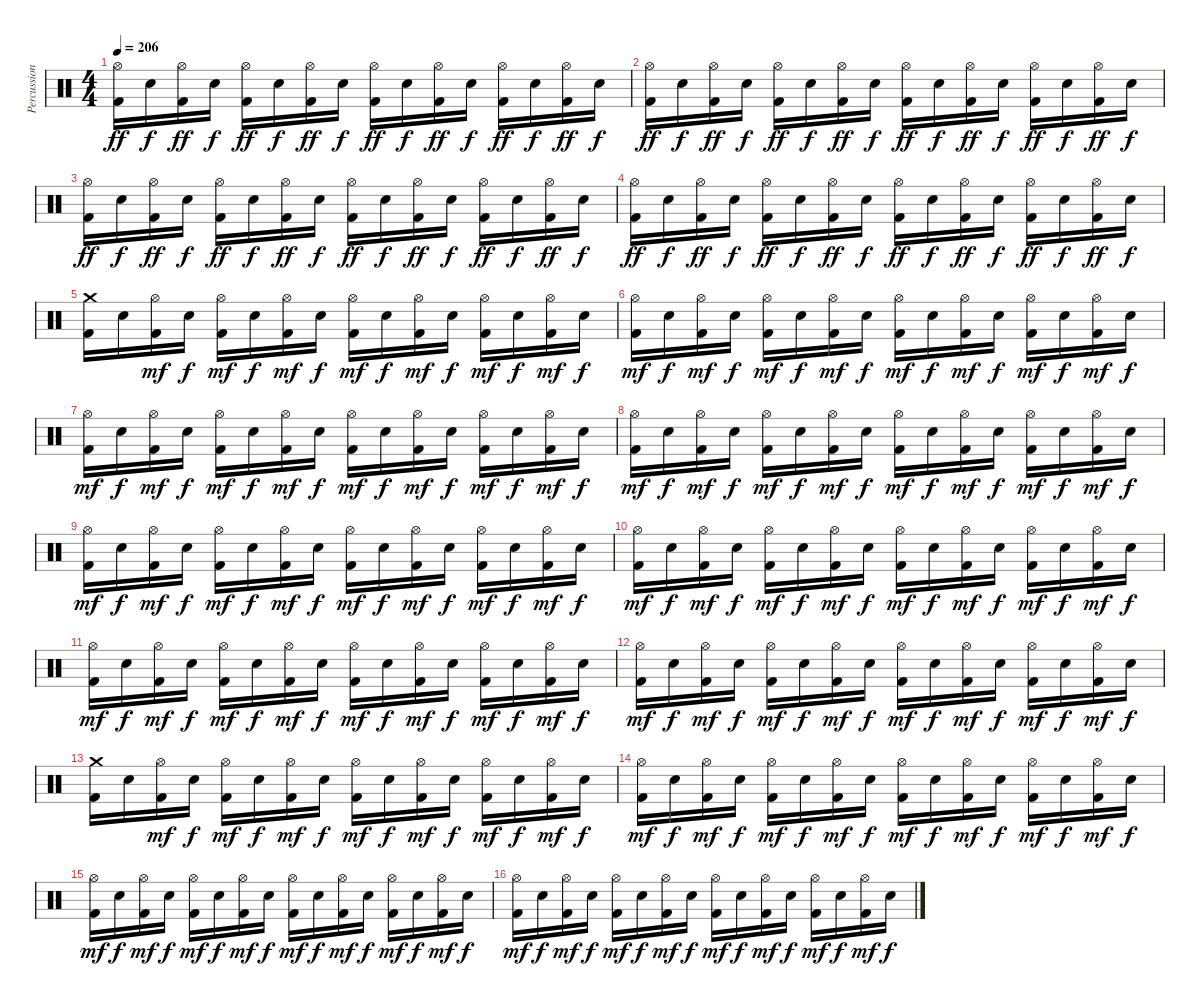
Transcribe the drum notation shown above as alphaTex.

\track ("Percussion" "Percussion") {instrument percussion}
\staff {score}
\articulation defaults
\ts (4 4)
\tempo 206
\clef neutral
\ks c
("Hi-Hat (open)" "Kick (hit) 2").16{dy ff} "Electric Snare (hit)".16{dy f} ("Hi-Hat (open)" "Kick (hit) 2").16{dy ff} "Electric Snare (hit)".16{dy f} ("Hi-Hat (open)" "Kick (hit) 2").16{dy ff} "Electric Snare (hit)".16{dy f} ("Hi-Hat (open)" "Kick (hit) 2").16{dy ff} "Electric Snare (hit)".16{dy f} ("Hi-Hat (open)" "Kick (hit) 2").16{dy ff} "Electric Snare (hit)".16{dy f} ("Hi-Hat (open)" "Kick (hit) 2").16{dy ff} "Electric Snare (hit)".16{dy f} ("Hi-Hat (open)" "Kick (hit) 2").16{dy ff} "Electric Snare (hit)".16{dy f} ("Hi-Hat (open)" "Kick (hit) 2").16{dy ff} "Electric Snare (hit)".16{dy f} |
("Hi-Hat (open)" "Kick (hit) 2").16{dy ff} "Electric Snare (hit)".16{dy f} ("Hi-Hat (open)" "Kick (hit) 2").16{dy ff} "Electric Snare (hit)".16{dy f} ("Hi-Hat (open)" "Kick (hit) 2").16{dy ff} "Electric Snare (hit)".16{dy f} ("Hi-Hat (open)" "Kick (hit) 2").16{dy ff} "Electric Snare (hit)".16{dy f} ("Hi-Hat (open)" "Kick (hit) 2").16{dy ff} "Electric Snare (hit)".16{dy f} ("Hi-Hat (open)" "Kick (hit) 2").16{dy ff} "Electric Snare (hit)".16{dy f} ("Hi-Hat (open)" "Kick (hit) 2").16{dy ff} "Electric Snare (hit)".16{dy f} ("Hi-Hat (open)" "Kick (hit) 2").16{dy ff} "Electric Snare (hit)".16{dy f} |
("Hi-Hat (open)" "Kick (hit) 2").16{dy ff} "Electric Snare (hit)".16{dy f} ("Hi-Hat (open)" "Kick (hit) 2").16{dy ff} "Electric Snare (hit)".16{dy f} ("Hi-Hat (open)" "Kick (hit) 2").16{dy ff} "Electric Snare (hit)".16{dy f} ("Hi-Hat (open)" "Kick (hit) 2").16{dy ff} "Electric Snare (hit)".16{dy f} ("Hi-Hat (open)" "Kick (hit) 2").16{dy ff} "Electric Snare (hit)".16{dy f} ("Hi-Hat (open)" "Kick (hit) 2").16{dy ff} "Electric Snare (hit)".16{dy f} ("Hi-Hat (open)" "Kick (hit) 2").16{dy ff} "Electric Snare (hit)".16{dy f} ("Hi-Hat (open)" "Kick (hit) 2").16{dy ff} "Electric Snare (hit)".16{dy f} |
("Hi-Hat (open)" "Kick (hit) 2").16{dy ff} "Electric Snare (hit)".16{dy f} ("Hi-Hat (open)" "Kick (hit) 2").16{dy ff} "Electric Snare (hit)".16{dy f} ("Hi-Hat (open)" "Kick (hit) 2").16{dy ff} "Electric Snare (hit)".16{dy f} ("Hi-Hat (open)" "Kick (hit) 2").16{dy ff} "Electric Snare (hit)".16{dy f} ("Hi-Hat (open)" "Kick (hit) 2").16{dy ff} "Electric Snare (hit)".16{dy f} ("Hi-Hat (open)" "Kick (hit) 2").16{dy ff} "Electric Snare (hit)".16{dy f} ("Hi-Hat (open)" "Kick (hit) 2").16{dy ff} "Electric Snare (hit)".16{dy f} ("Hi-Hat (open)" "Kick (hit) 2").16{dy ff} "Electric Snare (hit)".16{dy f} |
("Crash medium (hit)" "Kick (hit) 2").16 "Electric Snare (hit)".16 ("Hi-Hat (open)" "Kick (hit) 2").16{dy mf} "Electric Snare (hit)".16{dy f} ("Hi-Hat (open)" "Kick (hit) 2").16{dy mf} "Electric Snare (hit)".16{dy f} ("Hi-Hat (open)" "Kick (hit) 2").16{dy mf} "Electric Snare (hit)".16{dy f} ("Hi-Hat (open)" "Kick (hit) 2").16{dy mf} "Electric Snare (hit)".16{dy f} ("Hi-Hat (open)" "Kick (hit) 2").16{dy mf} "Electric Snare (hit)".16{dy f} ("Hi-Hat (open)" "Kick (hit) 2").16{dy mf} "Electric Snare (hit)".16{dy f} ("Hi-Hat (open)" "Kick (hit) 2").16{dy mf} "Electric Snare (hit)".16{dy f} |
("Hi-Hat (open)" "Kick (hit) 2").16{dy mf} "Electric Snare (hit)".16{dy f} ("Hi-Hat (open)" "Kick (hit) 2").16{dy mf} "Electric Snare (hit)".16{dy f} ("Hi-Hat (open)" "Kick (hit) 2").16{dy mf} "Electric Snare (hit)".16{dy f} ("Hi-Hat (open)" "Kick (hit) 2").16{dy mf} "Electric Snare (hit)".16{dy f} ("Hi-Hat (open)" "Kick (hit) 2").16{dy mf} "Electric Snare (hit)".16{dy f} ("Hi-Hat (open)" "Kick (hit) 2").16{dy mf} "Electric Snare (hit)".16{dy f} ("Hi-Hat (open)" "Kick (hit) 2").16{dy mf} "Electric Snare (hit)".16{dy f} ("Hi-Hat (open)" "Kick (hit) 2").16{dy mf} "Electric Snare (hit)".16{dy f} |
("Hi-Hat (open)" "Kick (hit) 2").16{dy mf} "Electric Snare (hit)".16{dy f} ("Hi-Hat (open)" "Kick (hit) 2").16{dy mf} "Electric Snare (hit)".16{dy f} ("Hi-Hat (open)" "Kick (hit) 2").16{dy mf} "Electric Snare (hit)".16{dy f} ("Hi-Hat (open)" "Kick (hit) 2").16{dy mf} "Electric Snare (hit)".16{dy f} ("Hi-Hat (open)" "Kick (hit) 2").16{dy mf} "Electric Snare (hit)".16{dy f} ("Hi-Hat (open)" "Kick (hit) 2").16{dy mf} "Electric Snare (hit)".16{dy f} ("Hi-Hat (open)" "Kick (hit) 2").16{dy mf} "Electric Snare (hit)".16{dy f} ("Hi-Hat (open)" "Kick (hit) 2").16{dy mf} "Electric Snare (hit)".16{dy f} |
("Hi-Hat (open)" "Kick (hit) 2").16{dy mf} "Electric Snare (hit)".16{dy f} ("Hi-Hat (open)" "Kick (hit) 2").16{dy mf} "Electric Snare (hit)".16{dy f} ("Hi-Hat (open)" "Kick (hit) 2").16{dy mf} "Electric Snare (hit)".16{dy f} ("Hi-Hat (open)" "Kick (hit) 2").16{dy mf} "Electric Snare (hit)".16{dy f} ("Hi-Hat (open)" "Kick (hit) 2").16{dy mf} "Electric Snare (hit)".16{dy f} ("Hi-Hat (open)" "Kick (hit) 2").16{dy mf} "Electric Snare (hit)".16{dy f} ("Hi-Hat (open)" "Kick (hit) 2").16{dy mf} "Electric Snare (hit)".16{dy f} ("Hi-Hat (open)" "Kick (hit) 2").16{dy mf} "Electric Snare (hit)".16{dy f} |
("Hi-Hat (open)" "Kick (hit) 2").16{dy mf} "Electric Snare (hit)".16{dy f} ("Hi-Hat (open)" "Kick (hit) 2").16{dy mf} "Electric Snare (hit)".16{dy f} ("Hi-Hat (open)" "Kick (hit) 2").16{dy mf} "Electric Snare (hit)".16{dy f} ("Hi-Hat (open)" "Kick (hit) 2").16{dy mf} "Electric Snare (hit)".16{dy f} ("Hi-Hat (open)" "Kick (hit) 2").16{dy mf} "Electric Snare (hit)".16{dy f} ("Hi-Hat (open)" "Kick (hit) 2").16{dy mf} "Electric Snare (hit)".16{dy f} ("Hi-Hat (open)" "Kick (hit) 2").16{dy mf} "Electric Snare (hit)".16{dy f} ("Hi-Hat (open)" "Kick (hit) 2").16{dy mf} "Electric Snare (hit)".16{dy f} |
("Hi-Hat (open)" "Kick (hit) 2").16{dy mf} "Electric Snare (hit)".16{dy f} ("Hi-Hat (open)" "Kick (hit) 2").16{dy mf} "Electric Snare (hit)".16{dy f} ("Hi-Hat (open)" "Kick (hit) 2").16{dy mf} "Electric Snare (hit)".16{dy f} ("Hi-Hat (open)" "Kick (hit) 2").16{dy mf} "Electric Snare (hit)".16{dy f} ("Hi-Hat (open)" "Kick (hit) 2").16{dy mf} "Electric Snare (hit)".16{dy f} ("Hi-Hat (open)" "Kick (hit) 2").16{dy mf} "Electric Snare (hit)".16{dy f} ("Hi-Hat (open)" "Kick (hit) 2").16{dy mf} "Electric Snare (hit)".16{dy f} ("Hi-Hat (open)" "Kick (hit) 2").16{dy mf} "Electric Snare (hit)".16{dy f} |
("Hi-Hat (open)" "Kick (hit) 2").16{dy mf} "Electric Snare (hit)".16{dy f} ("Hi-Hat (open)" "Kick (hit) 2").16{dy mf} "Electric Snare (hit)".16{dy f} ("Hi-Hat (open)" "Kick (hit) 2").16{dy mf} "Electric Snare (hit)".16{dy f} ("Hi-Hat (open)" "Kick (hit) 2").16{dy mf} "Electric Snare (hit)".16{dy f} ("Hi-Hat (open)" "Kick (hit) 2").16{dy mf} "Electric Snare (hit)".16{dy f} ("Hi-Hat (open)" "Kick (hit) 2").16{dy mf} "Electric Snare (hit)".16{dy f} ("Hi-Hat (open)" "Kick (hit) 2").16{dy mf} "Electric Snare (hit)".16{dy f} ("Hi-Hat (open)" "Kick (hit) 2").16{dy mf} "Electric Snare (hit)".16{dy f} |
("Hi-Hat (open)" "Kick (hit) 2").16{dy mf} "Electric Snare (hit)".16{dy f} ("Hi-Hat (open)" "Kick (hit) 2").16{dy mf} "Electric Snare (hit)".16{dy f} ("Hi-Hat (open)" "Kick (hit) 2").16{dy mf} "Electric Snare (hit)".16{dy f} ("Hi-Hat (open)" "Kick (hit) 2").16{dy mf} "Electric Snare (hit)".16{dy f} ("Hi-Hat (open)" "Kick (hit) 2").16{dy mf} "Electric Snare (hit)".16{dy f} ("Hi-Hat (open)" "Kick (hit) 2").16{dy mf} "Electric Snare (hit)".16{dy f} ("Hi-Hat (open)" "Kick (hit) 2").16{dy mf} "Electric Snare (hit)".16{dy f} ("Hi-Hat (open)" "Kick (hit) 2").16{dy mf} "Electric Snare (hit)".16{dy f} |
("Crash medium (hit)" "Kick (hit) 2").16 "Electric Snare (hit)".16 ("Hi-Hat (open)" "Kick (hit) 2").16{dy mf} "Electric Snare (hit)".16{dy f} ("Hi-Hat (open)" "Kick (hit) 2").16{dy mf} "Electric Snare (hit)".16{dy f} ("Hi-Hat (open)" "Kick (hit) 2").16{dy mf} "Electric Snare (hit)".16{dy f} ("Hi-Hat (open)" "Kick (hit) 2").16{dy mf} "Electric Snare (hit)".16{dy f} ("Hi-Hat (open)" "Kick (hit) 2").16{dy mf} "Electric Snare (hit)".16{dy f} ("Hi-Hat (open)" "Kick (hit) 2").16{dy mf} "Electric Snare (hit)".16{dy f} ("Hi-Hat (open)" "Kick (hit) 2").16{dy mf} "Electric Snare (hit)".16{dy f} |
("Hi-Hat (open)" "Kick (hit) 2").16{dy mf} "Electric Snare (hit)".16{dy f} ("Hi-Hat (open)" "Kick (hit) 2").16{dy mf} "Electric Snare (hit)".16{dy f} ("Hi-Hat (open)" "Kick (hit) 2").16{dy mf} "Electric Snare (hit)".16{dy f} ("Hi-Hat (open)" "Kick (hit) 2").16{dy mf} "Electric Snare (hit)".16{dy f} ("Hi-Hat (open)" "Kick (hit) 2").16{dy mf} "Electric Snare (hit)".16{dy f} ("Hi-Hat (open)" "Kick (hit) 2").16{dy mf} "Electric Snare (hit)".16{dy f} ("Hi-Hat (open)" "Kick (hit) 2").16{dy mf} "Electric Snare (hit)".16{dy f} ("Hi-Hat (open)" "Kick (hit) 2").16{dy mf} "Electric Snare (hit)".16{dy f} |
("Hi-Hat (open)" "Kick (hit) 2").16{dy mf} "Electric Snare (hit)".16{dy f} ("Hi-Hat (open)" "Kick (hit) 2").16{dy mf} "Electric Snare (hit)".16{dy f} ("Hi-Hat (open)" "Kick (hit) 2").16{dy mf} "Electric Snare (hit)".16{dy f} ("Hi-Hat (open)" "Kick (hit) 2").16{dy mf} "Electric Snare (hit)".16{dy f} ("Hi-Hat (open)" "Kick (hit) 2").16{dy mf} "Electric Snare (hit)".16{dy f} ("Hi-Hat (open)" "Kick (hit) 2").16{dy mf} "Electric Snare (hit)".16{dy f} ("Hi-Hat (open)" "Kick (hit) 2").16{dy mf} "Electric Snare (hit)".16{dy f} ("Hi-Hat (open)" "Kick (hit) 2").16{dy mf} "Electric Snare (hit)".16{dy f} |
("Hi-Hat (open)" "Kick (hit) 2").16{dy mf} "Electric Snare (hit)".16{dy f} ("Hi-Hat (open)" "Kick (hit) 2").16{dy mf} "Electric Snare (hit)".16{dy f} ("Hi-Hat (open)" "Kick (hit) 2").16{dy mf} "Electric Snare (hit)".16{dy f} ("Hi-Hat (open)" "Kick (hit) 2").16{dy mf} "Electric Snare (hit)".16{dy f} ("Hi-Hat (open)" "Kick (hit) 2").16{dy mf} "Electric Snare (hit)".16{dy f} ("Hi-Hat (open)" "Kick (hit) 2").16{dy mf} "Electric Snare (hit)".16{dy f} ("Hi-Hat (open)" "Kick (hit) 2").16{dy mf} "Electric Snare (hit)".16{dy f} ("Hi-Hat (open)" "Kick (hit) 2").16{dy mf} "Electric Snare (hit)".16{dy f}
